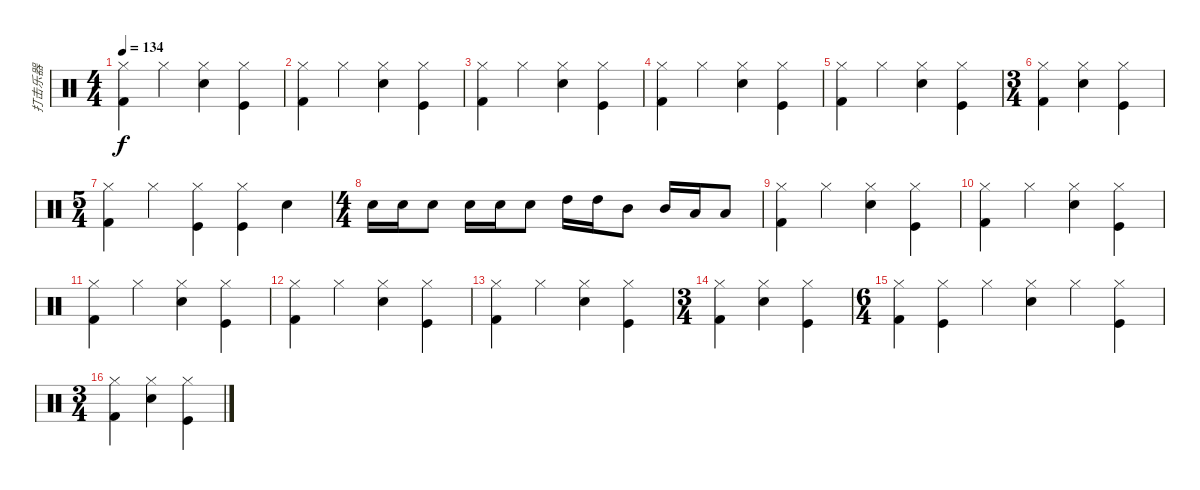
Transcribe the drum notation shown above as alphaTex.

\track ("打击乐器" "打击乐器") {instrument percussion}
\staff {score}
\articulation defaults
\ts (4 4)
\tempo 134
\clef neutral
\ks c
("Kick (hit) 2" "Hi-Hat (closed)").4{dy f} "Hi-Hat (closed)".4 ("Snare (hit) 2" "Hi-Hat (closed)").4 ("Hi-Hat (closed)" "Kick (hit)").4 |
("Kick (hit) 2" "Hi-Hat (closed)").4 "Hi-Hat (closed)".4 ("Snare (hit) 2" "Hi-Hat (closed)").4 ("Hi-Hat (closed)" "Kick (hit)").4 |
("Kick (hit) 2" "Hi-Hat (closed)").4 "Hi-Hat (closed)".4 ("Snare (hit) 2" "Hi-Hat (closed)").4 ("Hi-Hat (closed)" "Kick (hit)").4 |
("Kick (hit) 2" "Hi-Hat (closed)").4 "Hi-Hat (closed)".4 ("Snare (hit) 2" "Hi-Hat (closed)").4 ("Hi-Hat (closed)" "Kick (hit)").4 |
("Kick (hit) 2" "Hi-Hat (closed)").4 "Hi-Hat (closed)".4 ("Snare (hit) 2" "Hi-Hat (closed)").4 ("Hi-Hat (closed)" "Kick (hit)").4 |
\ts (3 4)
("Hi-Hat (closed)" "Kick (hit) 2").4 ("Hi-Hat (closed)" "Snare (hit) 2").4 ("Hi-Hat (closed)" "Kick (hit)").4 |
\ts (5 4)
("Kick (hit) 2" "Hi-Hat (closed)").4 "Hi-Hat (closed)".4 ("Kick (hit)" "Hi-Hat (closed)").4 ("Hi-Hat (closed)" "Kick (hit)").4 "Snare (hit) 2".4 |
\ts (4 4)
"Snare (hit) 2".16 "Snare (hit) 2".16 "Snare (hit) 2".8 "Snare (hit) 2".16 "Snare (hit) 2".16 "Snare (hit) 2".8 "High Tom (hit)".16 "High Tom (hit)".16 "Mid Tom (hit)".8 "Mid Tom (hit)".16 "Low Tom (hit)".16 "Low Tom (hit)".8 |
("Kick (hit) 2" "Hi-Hat (closed)").4 "Hi-Hat (closed)".4 ("Snare (hit) 2" "Hi-Hat (closed)").4 ("Hi-Hat (closed)" "Kick (hit)").4 |
("Kick (hit) 2" "Hi-Hat (closed)").4 "Hi-Hat (closed)".4 ("Snare (hit) 2" "Hi-Hat (closed)").4 ("Hi-Hat (closed)" "Kick (hit)").4 |
("Kick (hit) 2" "Hi-Hat (closed)").4 "Hi-Hat (closed)".4 ("Snare (hit) 2" "Hi-Hat (closed)").4 ("Hi-Hat (closed)" "Kick (hit)").4 |
("Kick (hit) 2" "Hi-Hat (closed)").4 "Hi-Hat (closed)".4 ("Snare (hit) 2" "Hi-Hat (closed)").4 ("Hi-Hat (closed)" "Kick (hit)").4 |
("Kick (hit) 2" "Hi-Hat (closed)").4 "Hi-Hat (closed)".4 ("Snare (hit) 2" "Hi-Hat (closed)").4 ("Hi-Hat (closed)" "Kick (hit)").4 |
\ts (3 4)
("Hi-Hat (closed)" "Kick (hit) 2").4 ("Hi-Hat (closed)" "Snare (hit) 2").4 ("Hi-Hat (closed)" "Kick (hit)").4 |
\ts (6 4)
("Kick (hit) 2" "Hi-Hat (closed)").4 ("Hi-Hat (closed)" "Kick (hit)").4 "Hi-Hat (closed)".4 ("Snare (hit) 2" "Hi-Hat (closed)").4 "Hi-Hat (closed)".4 ("Kick (hit)" "Hi-Hat (closed)").4 |
\ts (3 4)
("Hi-Hat (closed)" "Kick (hit) 2").4 ("Hi-Hat (closed)" "Snare (hit) 2").4 ("Hi-Hat (closed)" "Kick (hit)").4
